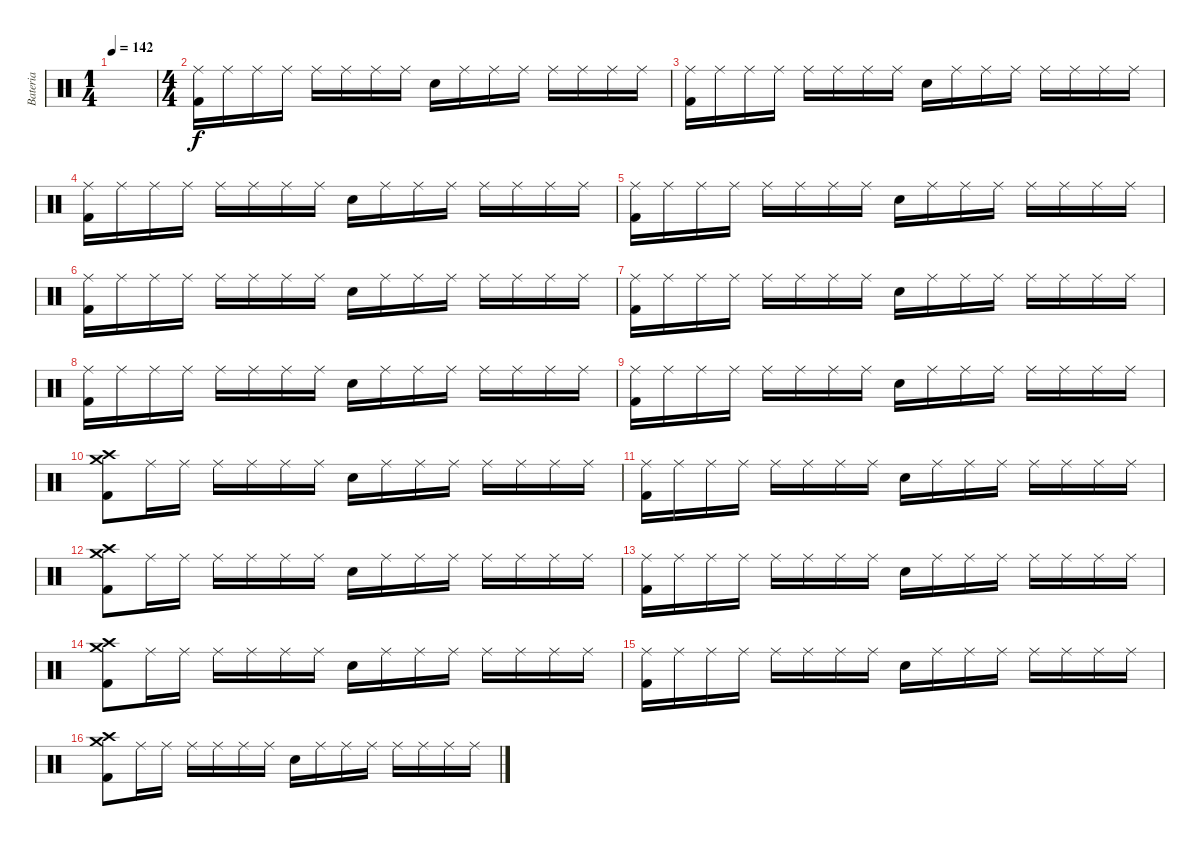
\track ("Bateria" "Bateria") {instrument percussion}
\staff {score}
\articulation defaults
\ts (1 4)
\tempo 142
\clef neutral
\ks c
|
\ts (4 4)
("Ride (middle)" "Kick (hit) 2").16 "Ride (middle)".16 "Ride (middle)".16 "Ride (middle)".16 "Ride (middle)".16 "Ride (middle)".16 "Ride (middle)".16 "Ride (middle)".16 "Snare (hit) 2".16 "Ride (middle)".16 "Ride (middle)".16 "Ride (middle)".16 "Ride (middle)".16 "Ride (middle)".16 "Ride (middle)".16 "Ride (middle)".16 |
("Ride (middle)" "Kick (hit) 2").16 "Ride (middle)".16 "Ride (middle)".16 "Ride (middle)".16 "Ride (middle)".16 "Ride (middle)".16 "Ride (middle)".16 "Ride (middle)".16 "Snare (hit) 2".16 "Ride (middle)".16 "Ride (middle)".16 "Ride (middle)".16 "Ride (middle)".16 "Ride (middle)".16 "Ride (middle)".16 "Ride (middle)".16 |
("Ride (middle)" "Kick (hit) 2").16 "Ride (middle)".16 "Ride (middle)".16 "Ride (middle)".16 "Ride (middle)".16 "Ride (middle)".16 "Ride (middle)".16 "Ride (middle)".16 "Snare (hit) 2".16 "Ride (middle)".16 "Ride (middle)".16 "Ride (middle)".16 "Ride (middle)".16 "Ride (middle)".16 "Ride (middle)".16 "Ride (middle)".16 |
("Ride (middle)" "Kick (hit) 2").16 "Ride (middle)".16 "Ride (middle)".16 "Ride (middle)".16 "Ride (middle)".16 "Ride (middle)".16 "Ride (middle)".16 "Ride (middle)".16 "Snare (hit) 2".16 "Ride (middle)".16 "Ride (middle)".16 "Ride (middle)".16 "Ride (middle)".16 "Ride (middle)".16 "Ride (middle)".16 "Ride (middle)".16 |
("Ride (middle)" "Kick (hit) 2").16 "Ride (middle)".16 "Ride (middle)".16 "Ride (middle)".16 "Ride (middle)".16 "Ride (middle)".16 "Ride (middle)".16 "Ride (middle)".16 "Snare (hit) 2".16 "Ride (middle)".16 "Ride (middle)".16 "Ride (middle)".16 "Ride (middle)".16 "Ride (middle)".16 "Ride (middle)".16 "Ride (middle)".16 |
("Ride (middle)" "Kick (hit) 2").16 "Ride (middle)".16 "Ride (middle)".16 "Ride (middle)".16 "Ride (middle)".16 "Ride (middle)".16 "Ride (middle)".16 "Ride (middle)".16 "Snare (hit) 2".16 "Ride (middle)".16 "Ride (middle)".16 "Ride (middle)".16 "Ride (middle)".16 "Ride (middle)".16 "Ride (middle)".16 "Ride (middle)".16 |
("Ride (middle)" "Kick (hit) 2").16 "Ride (middle)".16 "Ride (middle)".16 "Ride (middle)".16 "Ride (middle)".16 "Ride (middle)".16 "Ride (middle)".16 "Ride (middle)".16 "Snare (hit) 2".16 "Ride (middle)".16 "Ride (middle)".16 "Ride (middle)".16 "Ride (middle)".16 "Ride (middle)".16 "Ride (middle)".16 "Ride (middle)".16 |
("Ride (middle)" "Kick (hit) 2").16 "Ride (middle)".16 "Ride (middle)".16 "Ride (middle)".16 "Ride (middle)".16 "Ride (middle)".16 "Ride (middle)".16 "Ride (middle)".16 "Snare (hit) 2".16 "Ride (middle)".16 "Ride (middle)".16 "Ride (middle)".16 "Ride (middle)".16 "Ride (middle)".16 "Ride (middle)".16 "Ride (middle)".16 |
("Crash medium (hit)" "Crash high (hit)" "Kick (hit) 2").8 "Ride (middle)".16 "Ride (middle)".16 "Ride (middle)".16 "Ride (middle)".16 "Ride (middle)".16 "Ride (middle)".16 "Snare (hit) 2".16 "Ride (middle)".16 "Ride (middle)".16 "Ride (middle)".16 "Ride (middle)".16 "Ride (middle)".16 "Ride (middle)".16 "Ride (middle)".16 |
("Ride (middle)" "Kick (hit) 2").16 "Ride (middle)".16 "Ride (middle)".16 "Ride (middle)".16 "Ride (middle)".16 "Ride (middle)".16 "Ride (middle)".16 "Ride (middle)".16 "Snare (hit) 2".16 "Ride (middle)".16 "Ride (middle)".16 "Ride (middle)".16 "Ride (middle)".16 "Ride (middle)".16 "Ride (middle)".16 "Ride (middle)".16 |
("Crash medium (hit)" "Crash high (hit)" "Kick (hit) 2").8 "Ride (middle)".16 "Ride (middle)".16 "Ride (middle)".16 "Ride (middle)".16 "Ride (middle)".16 "Ride (middle)".16 "Snare (hit) 2".16 "Ride (middle)".16 "Ride (middle)".16 "Ride (middle)".16 "Ride (middle)".16 "Ride (middle)".16 "Ride (middle)".16 "Ride (middle)".16 |
("Ride (middle)" "Kick (hit) 2").16 "Ride (middle)".16 "Ride (middle)".16 "Ride (middle)".16 "Ride (middle)".16 "Ride (middle)".16 "Ride (middle)".16 "Ride (middle)".16 "Snare (hit) 2".16 "Ride (middle)".16 "Ride (middle)".16 "Ride (middle)".16 "Ride (middle)".16 "Ride (middle)".16 "Ride (middle)".16 "Ride (middle)".16 |
("Crash medium (hit)" "Crash high (hit)" "Kick (hit) 2").8 "Ride (middle)".16 "Ride (middle)".16 "Ride (middle)".16 "Ride (middle)".16 "Ride (middle)".16 "Ride (middle)".16 "Snare (hit) 2".16 "Ride (middle)".16 "Ride (middle)".16 "Ride (middle)".16 "Ride (middle)".16 "Ride (middle)".16 "Ride (middle)".16 "Ride (middle)".16 |
("Ride (middle)" "Kick (hit) 2").16 "Ride (middle)".16 "Ride (middle)".16 "Ride (middle)".16 "Ride (middle)".16 "Ride (middle)".16 "Ride (middle)".16 "Ride (middle)".16 "Snare (hit) 2".16 "Ride (middle)".16 "Ride (middle)".16 "Ride (middle)".16 "Ride (middle)".16 "Ride (middle)".16 "Ride (middle)".16 "Ride (middle)".16 |
("Crash medium (hit)" "Crash high (hit)" "Kick (hit) 2").8 "Ride (middle)".16 "Ride (middle)".16 "Ride (middle)".16 "Ride (middle)".16 "Ride (middle)".16 "Ride (middle)".16 "Snare (hit) 2".16 "Ride (middle)".16 "Ride (middle)".16 "Ride (middle)".16 "Ride (middle)".16 "Ride (middle)".16 "Ride (middle)".16 "Ride (middle)".16
